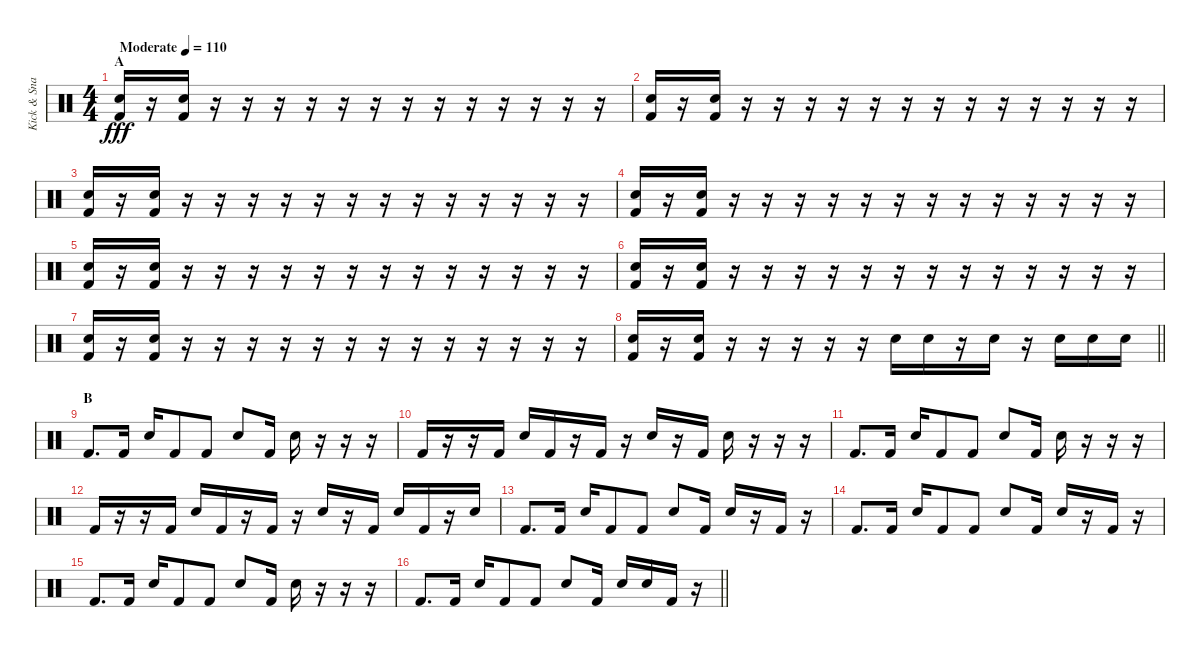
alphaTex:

\track ("Kick & Snare" "Kick & Sna") {instrument percussion}
\staff {score}
\articulation defaults
\ts (4 4)
\section ("" "A")
\tempo (110 "Moderate")
\clef neutral
\ks c
("Snare (hit) 2" "Kick (hit) 2").16{dy fff} r.16 ("Snare (hit) 2" "Kick (hit) 2").16 r.16 r.16 r.16 r.16 r.16 r.16 r.16 r.16 r.16 r.16 r.16 r.16 r.16 |
("Snare (hit) 2" "Kick (hit) 2").16 r.16 ("Snare (hit) 2" "Kick (hit) 2").16 r.16 r.16 r.16 r.16 r.16 r.16 r.16 r.16 r.16 r.16 r.16 r.16 r.16 |
("Snare (hit) 2" "Kick (hit) 2").16 r.16 ("Snare (hit) 2" "Kick (hit) 2").16 r.16 r.16 r.16 r.16 r.16 r.16 r.16 r.16 r.16 r.16 r.16 r.16 r.16 |
("Snare (hit) 2" "Kick (hit) 2").16 r.16 ("Snare (hit) 2" "Kick (hit) 2").16 r.16 r.16 r.16 r.16 r.16 r.16 r.16 r.16 r.16 r.16 r.16 r.16 r.16 |
("Snare (hit) 2" "Kick (hit) 2").16 r.16 ("Snare (hit) 2" "Kick (hit) 2").16 r.16 r.16 r.16 r.16 r.16 r.16 r.16 r.16 r.16 r.16 r.16 r.16 r.16 |
("Snare (hit) 2" "Kick (hit) 2").16 r.16 ("Snare (hit) 2" "Kick (hit) 2").16 r.16 r.16 r.16 r.16 r.16 r.16 r.16 r.16 r.16 r.16 r.16 r.16 r.16 |
("Snare (hit) 2" "Kick (hit) 2").16 r.16 ("Snare (hit) 2" "Kick (hit) 2").16 r.16 r.16 r.16 r.16 r.16 r.16 r.16 r.16 r.16 r.16 r.16 r.16 r.16 |
\barLineRight lightlight
("Snare (hit) 2" "Kick (hit) 2").16 r.16 ("Snare (hit) 2" "Kick (hit) 2").16 r.16 r.16 r.16 r.16 r.16 "Snare (hit) 2".16 "Snare (hit) 2".16 r.16 "Snare (hit) 2".16 r.16 "Snare (hit) 2".16 "Snare (hit) 2".16 "Snare (hit) 2".16 |
\section ("" "B")
"Kick (hit) 2".8{d} "Kick (hit) 2".16 "Snare (hit) 2".16 "Kick (hit) 2".8 "Kick (hit) 2".8 "Snare (hit) 2".8 "Kick (hit) 2".16 "Snare (hit) 2".16 r.16 r.16 r.16 |
"Kick (hit) 2".16 r.16 r.16 "Kick (hit) 2".16 "Snare (hit) 2".16 "Kick (hit) 2".16 r.16 "Kick (hit) 2".16 r.16 "Snare (hit) 2".16 r.16 "Kick (hit) 2".16 "Snare (hit) 2".16 r.16 r.16 r.16 |
"Kick (hit) 2".8{d} "Kick (hit) 2".16 "Snare (hit) 2".16 "Kick (hit) 2".8 "Kick (hit) 2".8 "Snare (hit) 2".8 "Kick (hit) 2".16 "Snare (hit) 2".16 r.16 r.16 r.16 |
"Kick (hit) 2".16 r.16 r.16 "Kick (hit) 2".16 "Snare (hit) 2".16 "Kick (hit) 2".16 r.16 "Kick (hit) 2".16 r.16 "Snare (hit) 2".16 r.16 "Kick (hit) 2".16 "Snare (hit) 2".16 "Kick (hit) 2".16 r.16 "Snare (hit) 2".16 |
"Kick (hit) 2".8{d} "Kick (hit) 2".16 "Snare (hit) 2".16 "Kick (hit) 2".8 "Kick (hit) 2".8 "Snare (hit) 2".8 "Kick (hit) 2".16 "Snare (hit) 2".16 r.16 "Kick (hit) 2".16 r.16 |
"Kick (hit) 2".8{d} "Kick (hit) 2".16 "Snare (hit) 2".16 "Kick (hit) 2".8 "Kick (hit) 2".8 "Snare (hit) 2".8 "Kick (hit) 2".16 "Snare (hit) 2".16 r.16 "Kick (hit) 2".16 r.16 |
"Kick (hit) 2".8{d} "Kick (hit) 2".16 "Snare (hit) 2".16 "Kick (hit) 2".8 "Kick (hit) 2".8 "Snare (hit) 2".8 "Kick (hit) 2".16 "Snare (hit) 2".16 r.16 r.16 r.16 |
\barLineRight lightlight "Kick (hit) 2".8{d} "Kick (hit) 2".16 "Snare (hit) 2".16 "Kick (hit) 2".8 "Kick (hit) 2".8 "Snare (hit) 2".8 "Kick (hit) 2".16 "Snare (hit) 2".16 "Snare (hit) 2".16 "Kick (hit) 2".16
r.16
